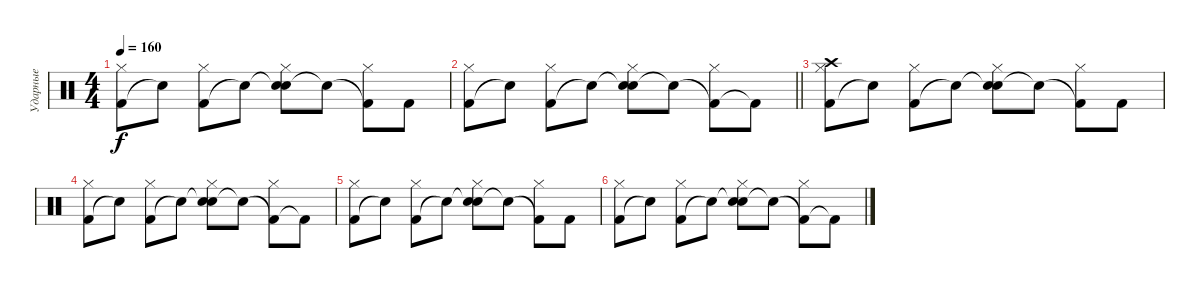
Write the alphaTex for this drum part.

\track ("Ударные" "Ударные") {instrument percussion}
\staff {score}
\articulation defaults
\ts (4 4)
\tempo 160
\clef neutral
\ks c
("Kick (hit) 2" "Hi-Hat (closed)").8{dy f} "Snare (hit)"{t}.8 ("Kick (hit) 2" "Hi-Hat (closed)").8 "Snare (hit)"{t}.8 ("Snare (hit)"{t} "Hi-Hat (closed)" "Snare (hit) 2").8 "Snare (hit)"{t}.8 ("Kick (hit) 2"{t} "Hi-Hat (closed)").8 "Kick (hit) 2".8 |
\barLineRight lightlight
("Kick (hit) 2" "Hi-Hat (closed)").8 "Snare (hit)"{t}.8 ("Kick (hit) 2" "Hi-Hat (closed)").8 "Snare (hit)"{t}.8 ("Snare (hit)"{t} "Hi-Hat (closed)" "Snare (hit) 2").8 "Snare (hit)"{t}.8 ("Kick (hit) 2"{t} "Hi-Hat (closed)").8 "Kick (hit) 2"{t}.8 |
("Kick (hit) 2" "Hi-Hat (closed)" "Crash high (hit)").8 "Snare (hit)"{t}.8 ("Kick (hit) 2" "Hi-Hat (closed)").8 "Snare (hit)"{t}.8 ("Snare (hit)"{t} "Hi-Hat (closed)" "Snare (hit) 2").8 "Snare (hit)"{t}.8 ("Kick (hit) 2"{t} "Hi-Hat (closed)").8 "Kick (hit) 2".8 |
("Kick (hit) 2" "Hi-Hat (closed)").8 "Snare (hit)"{t}.8 ("Kick (hit) 2" "Hi-Hat (closed)").8 "Snare (hit)"{t}.8 ("Snare (hit)"{t} "Hi-Hat (closed)" "Snare (hit) 2").8 "Snare (hit)"{t}.8 ("Kick (hit) 2"{t} "Hi-Hat (closed)").8 "Kick (hit) 2"{t}.8 |
("Kick (hit) 2" "Hi-Hat (closed)").8 "Snare (hit)"{t}.8 ("Kick (hit) 2" "Hi-Hat (closed)").8 "Snare (hit)"{t}.8 ("Snare (hit)"{t} "Hi-Hat (closed)" "Snare (hit) 2").8 "Snare (hit)"{t}.8 ("Kick (hit) 2"{t} "Hi-Hat (closed)").8 "Kick (hit) 2".8 |
("Kick (hit) 2" "Hi-Hat (closed)").8 "Snare (hit)"{t}.8 ("Kick (hit) 2" "Hi-Hat (closed)").8 "Snare (hit)"{t}.8 ("Snare (hit)"{t} "Hi-Hat (closed)" "Snare (hit) 2").8 "Snare (hit)"{t}.8 ("Kick (hit) 2"{t} "Hi-Hat (closed)").8 "Kick (hit) 2"{t}.8
